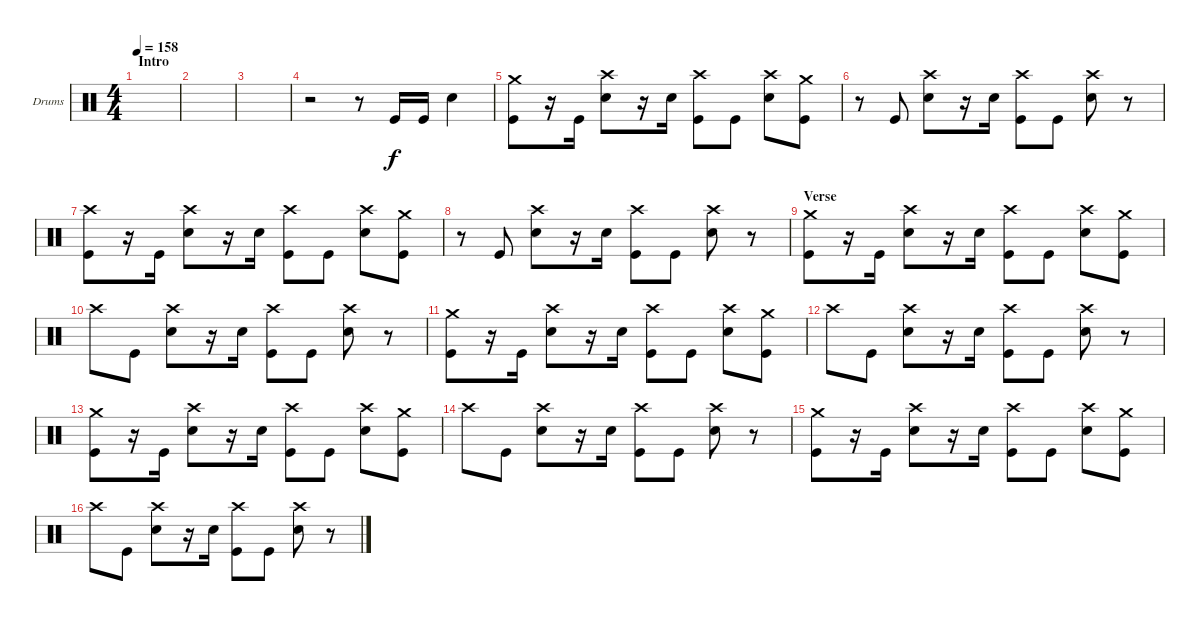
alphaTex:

\defaultSystemsLayout 4
\bracketExtendMode groupsimilarinstruments
\firstSystemTrackNameOrientation horizontal
\otherSystemsTrackNameOrientation horizontal
\track ("Drumkit" "Drums") {instrument percussion}
\staff {score}
\articulation defaults
\ts (4 4)
\section ("" "Intro")
\tempo 158
\clef neutral
\ks c
|
|
|
r.2 r.8 "Kick (hit)".16 "Kick (hit)".16 "Snare (hit) 2".4 |
("Crash medium (hit)" "Kick (hit)").8 r.16 "Kick (hit)".16 ("Snare (hit) 2" "Crash high (hit)").8 r.16 "Snare (hit) 2".16 ("Crash high (hit)" "Kick (hit)").8 "Kick (hit)".8 ("Snare (hit) 2" "Crash high (hit)").8 ("Crash medium (hit)" "Kick (hit)").8 |
r.8 "Kick (hit)".8 ("Snare (hit) 2" "Crash high (hit)").8 r.16 "Snare (hit) 2".16 ("Crash high (hit)" "Kick (hit)").8 "Kick (hit)".8 ("Snare (hit) 2" "Crash high (hit)").8 r.8 |
("Kick (hit)" "Crash high (hit)").8 r.16 "Kick (hit)".16 ("Snare (hit) 2" "Crash high (hit)").8 r.16 "Snare (hit) 2".16 ("Crash high (hit)" "Kick (hit)").8 "Kick (hit)".8 ("Snare (hit) 2" "Crash high (hit)").8 ("Crash medium (hit)" "Kick (hit)").8 |
r.8 "Kick (hit)".8 ("Snare (hit) 2" "Crash high (hit)").8 r.16 "Snare (hit) 2".16 ("Crash high (hit)" "Kick (hit)").8 "Kick (hit)".8 ("Snare (hit) 2" "Crash high (hit)").8 r.8 |
\section ("" "Verse")
("Crash medium (hit)" "Kick (hit)").8 r.16 "Kick (hit)".16 ("Snare (hit) 2" "Crash high (hit)").8 r.16 "Snare (hit) 2".16 ("Crash high (hit)" "Kick (hit)").8 "Kick (hit)".8 ("Snare (hit) 2" "Crash high (hit)").8 ("Crash medium (hit)" "Kick (hit)").8 |
"Crash high (hit)".8 "Kick (hit)".8 ("Snare (hit) 2" "Crash high (hit)").8 r.16 "Snare (hit) 2".16 ("Crash high (hit)" "Kick (hit)").8 "Kick (hit)".8 ("Snare (hit) 2" "Crash high (hit)").8 r.8 |
("Crash medium (hit)" "Kick (hit)").8 r.16 "Kick (hit)".16 ("Snare (hit) 2" "Crash high (hit)").8 r.16 "Snare (hit) 2".16 ("Crash high (hit)" "Kick (hit)").8 "Kick (hit)".8 ("Snare (hit) 2" "Crash high (hit)").8 ("Crash medium (hit)" "Kick (hit)").8 |
"Crash high (hit)".8 "Kick (hit)".8 ("Snare (hit) 2" "Crash high (hit)").8 r.16 "Snare (hit) 2".16 ("Crash high (hit)" "Kick (hit)").8 "Kick (hit)".8 ("Snare (hit) 2" "Crash high (hit)").8 r.8 |
("Crash medium (hit)" "Kick (hit)").8 r.16 "Kick (hit)".16 ("Snare (hit) 2" "Crash high (hit)").8 r.16 "Snare (hit) 2".16 ("Crash high (hit)" "Kick (hit)").8 "Kick (hit)".8 ("Snare (hit) 2" "Crash high (hit)").8 ("Crash medium (hit)" "Kick (hit)").8 |
"Crash high (hit)".8 "Kick (hit)".8 ("Snare (hit) 2" "Crash high (hit)").8 r.16 "Snare (hit) 2".16 ("Crash high (hit)" "Kick (hit)").8 "Kick (hit)".8 ("Snare (hit) 2" "Crash high (hit)").8 r.8 |
("Crash medium (hit)" "Kick (hit)").8 r.16 "Kick (hit)".16 ("Snare (hit) 2" "Crash high (hit)").8 r.16 "Snare (hit) 2".16 ("Crash high (hit)" "Kick (hit)").8 "Kick (hit)".8 ("Snare (hit) 2" "Crash high (hit)").8 ("Crash medium (hit)" "Kick (hit)").8 |
"Crash high (hit)".8 "Kick (hit)".8 ("Snare (hit) 2" "Crash high (hit)").8 r.16 "Snare (hit) 2".16 ("Crash high (hit)" "Kick (hit)").8 "Kick (hit)".8 ("Snare (hit) 2" "Crash high (hit)").8 r.8
